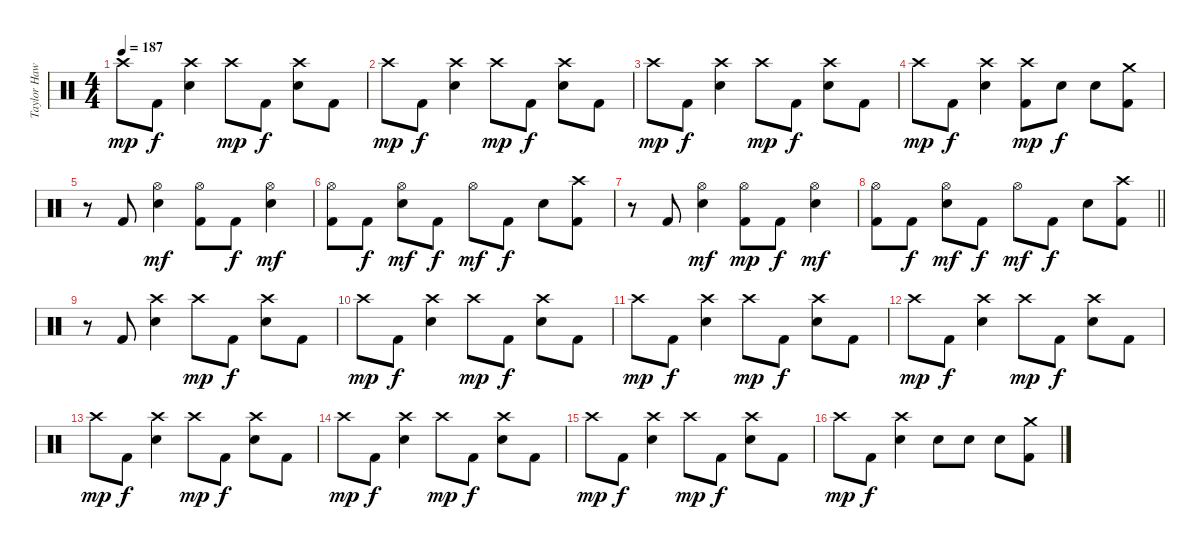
\track ("Taylor Hawkins" "Taylor Haw") {instrument percussion}
\staff {score}
\articulation defaults
\ts (4 4)
\tempo 187
\clef neutral
\ks c "Crash high (hit)".8{dy mp} "Kick (hit) 2".8{dy f}
("Crash high (hit)" "Snare (hit) 2").4 "Crash high (hit)".8{dy mp} "Kick (hit) 2".8{dy f} ("Crash high (hit)" "Snare (hit) 2").8 "Kick (hit) 2".8 |
"Crash high (hit)".8{dy mp} "Kick (hit) 2".8{dy f} ("Crash high (hit)" "Snare (hit) 2").4 "Crash high (hit)".8{dy mp} "Kick (hit) 2".8{dy f} ("Crash high (hit)" "Snare (hit) 2").8 "Kick (hit) 2".8 |
"Crash high (hit)".8{dy mp} "Kick (hit) 2".8{dy f} ("Crash high (hit)" "Snare (hit) 2").4 "Crash high (hit)".8{dy mp} "Kick (hit) 2".8{dy f} ("Crash high (hit)" "Snare (hit) 2").8 "Kick (hit) 2".8 |
"Crash high (hit)".8{dy mp} "Kick (hit) 2".8{dy f} ("Crash high (hit)" "Snare (hit) 2").4 ("Crash high (hit)" "Kick (hit) 2").8{dy mp} "Snare (hit) 2".8{dy f} "Snare (hit) 2".8 ("Crash medium (hit)" "Kick (hit) 2").8 |
r.8 "Kick (hit) 2".8 ("Hi-Hat (open)" "Snare (hit) 2").4{dy mf} ("Hi-Hat (open)" "Kick (hit) 2").8 "Kick (hit) 2".8{dy f} ("Hi-Hat (open)" "Snare (hit) 2").4{dy mf} |
("Hi-Hat (open)" "Kick (hit) 2").8 "Kick (hit) 2".8{dy f} ("Hi-Hat (open)" "Snare (hit) 2").8{dy mf} "Kick (hit) 2".8{dy f} "Hi-Hat (open)".8{dy mf} "Kick (hit) 2".8{dy f} "Snare (hit) 2".8 ("Crash high (hit)" "Kick (hit) 2").8 |
r.8 "Kick (hit) 2".8 ("Hi-Hat (open)" "Snare (hit) 2").4{dy mf} ("Hi-Hat (open)" "Kick (hit) 2").8{dy mp} "Kick (hit) 2".8{dy f} ("Hi-Hat (open)" "Snare (hit) 2").4{dy mf} |
\barLineRight lightlight
("Hi-Hat (open)" "Kick (hit) 2").8 "Kick (hit) 2".8{dy f} ("Hi-Hat (open)" "Snare (hit) 2").8{dy mf} "Kick (hit) 2".8{dy f} "Hi-Hat (open)".8{dy mf} "Kick (hit) 2".8{dy f} "Snare (hit) 2".8 ("Crash high (hit)" "Kick (hit) 2").8 |
r.8 "Kick (hit) 2".8 ("Crash high (hit)" "Snare (hit) 2").4 "Crash high (hit)".8{dy mp} "Kick (hit) 2".8{dy f} ("Crash high (hit)" "Snare (hit) 2").8 "Kick (hit) 2".8 |
"Crash high (hit)".8{dy mp} "Kick (hit) 2".8{dy f} ("Crash high (hit)" "Snare (hit) 2").4 "Crash high (hit)".8{dy mp} "Kick (hit) 2".8{dy f} ("Crash high (hit)" "Snare (hit) 2").8 "Kick (hit) 2".8 |
"Crash high (hit)".8{dy mp} "Kick (hit) 2".8{dy f} ("Crash high (hit)" "Snare (hit) 2").4 "Crash high (hit)".8{dy mp} "Kick (hit) 2".8{dy f} ("Crash high (hit)" "Snare (hit) 2").8 "Kick (hit) 2".8 |
"Crash high (hit)".8{dy mp} "Kick (hit) 2".8{dy f} ("Crash high (hit)" "Snare (hit) 2").4 "Crash high (hit)".8{dy mp} "Kick (hit) 2".8{dy f} ("Crash high (hit)" "Snare (hit) 2").8 "Kick (hit) 2".8 |
"Crash high (hit)".8{dy mp} "Kick (hit) 2".8{dy f} ("Crash high (hit)" "Snare (hit) 2").4 "Crash high (hit)".8{dy mp} "Kick (hit) 2".8{dy f} ("Crash high (hit)" "Snare (hit) 2").8 "Kick (hit) 2".8 |
"Crash high (hit)".8{dy mp} "Kick (hit) 2".8{dy f} ("Crash high (hit)" "Snare (hit) 2").4 "Crash high (hit)".8{dy mp} "Kick (hit) 2".8{dy f} ("Crash high (hit)" "Snare (hit) 2").8 "Kick (hit) 2".8 |
"Crash high (hit)".8{dy mp} "Kick (hit) 2".8{dy f} ("Crash high (hit)" "Snare (hit) 2").4 "Crash high (hit)".8{dy mp} "Kick (hit) 2".8{dy f} ("Crash high (hit)" "Snare (hit) 2").8 "Kick (hit) 2".8 |
"Crash high (hit)".8{dy mp} "Kick (hit) 2".8{dy f} ("Crash high (hit)" "Snare (hit) 2").4 "Snare (hit) 2".8 "Snare (hit) 2".8 "Snare (hit) 2".8 ("Crash medium (hit)" "Kick (hit) 2").8
